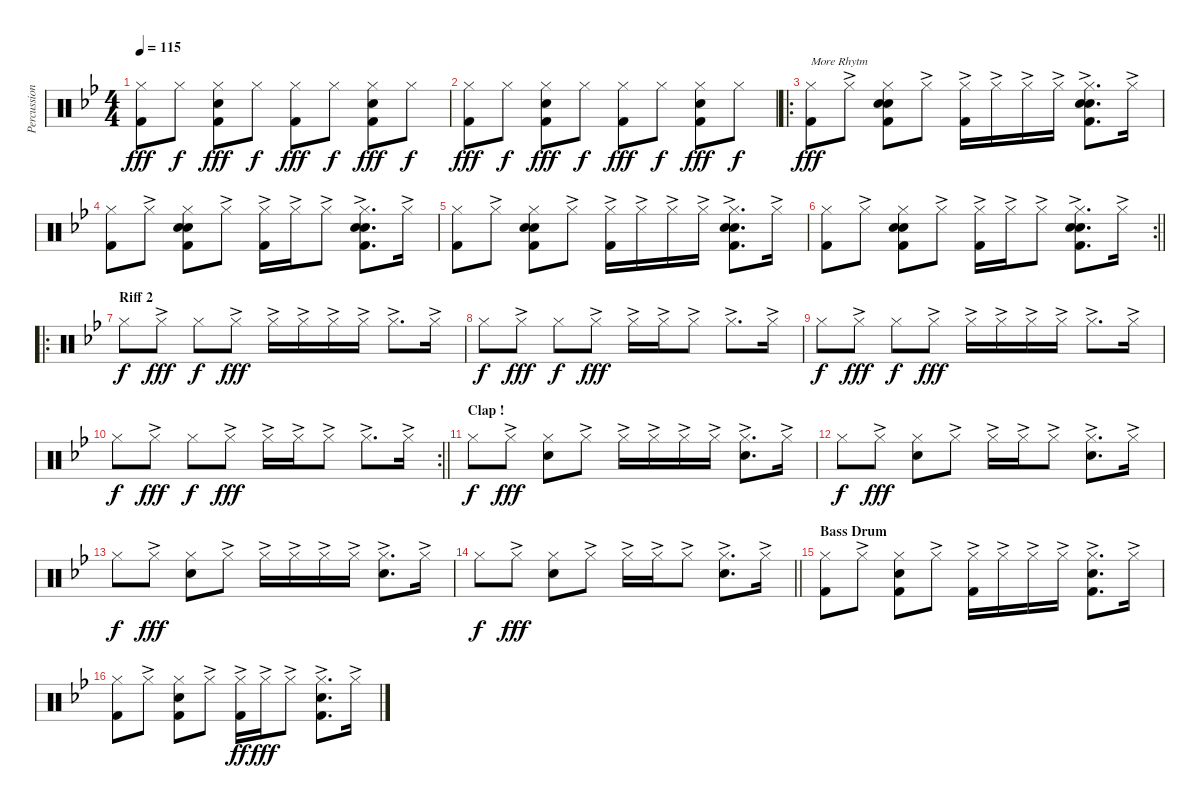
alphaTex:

\track ("Percussions" "Percussion") {instrument percussion}
\staff {score}
\articulation defaults
\ts (4 4)
\tempo 115
\clef neutral
\ks gminor
("Hi-Hat (closed)" "Kick (hit) 2").8{dy fff} "Hi-Hat (closed)".8{dy f} ("Hi-Hat (closed)" "Hand Clap (hit)" "Kick (hit) 2").8{dy fff} "Hi-Hat (closed)".8{dy f} ("Hi-Hat (closed)" "Kick (hit) 2").8{dy fff} "Hi-Hat (closed)".8{dy f} ("Hi-Hat (closed)" "Hand Clap (hit)" "Kick (hit) 2").8{dy fff} "Hi-Hat (closed)".8{dy f} |
("Hi-Hat (closed)" "Kick (hit) 2").8{dy fff} "Hi-Hat (closed)".8{dy f} ("Hi-Hat (closed)" "Hand Clap (hit)" "Kick (hit) 2").8{dy fff} "Hi-Hat (closed)".8{dy f} ("Hi-Hat (closed)" "Kick (hit) 2").8{dy fff} "Hi-Hat (closed)".8{dy f} ("Hi-Hat (closed)" "Hand Clap (hit)" "Kick (hit) 2").8{dy fff} "Hi-Hat (closed)".8{dy f} |
\ro
("Hi-Hat (closed)" "Kick (hit) 2").8{txt "More Rhytm" dy fff} "Hi-Hat (closed)"{ac}.8 ("Hi-Hat (closed)" "Hand Clap (hit)" "Electric Snare (hit)" "Kick (hit) 2").8 "Hi-Hat (closed)"{ac}.8 ("Hi-Hat (closed)"{ac} "Kick (hit) 2").16 "Hi-Hat (closed)"{ac}.16 "Hi-Hat (closed)"{ac}.16 "Hi-Hat (closed)"{ac}.16 ("Hi-Hat (closed)"{ac} "Hand Clap (hit)" "Electric Snare (hit)" "Kick (hit) 2").8{d} "Hi-Hat (closed)"{ac}.16 |
("Hi-Hat (closed)" "Kick (hit) 2").8 "Hi-Hat (closed)"{ac}.8 ("Hi-Hat (closed)" "Hand Clap (hit)" "Electric Snare (hit)" "Kick (hit) 2").8 "Hi-Hat (closed)"{ac}.8 ("Hi-Hat (closed)"{ac} "Kick (hit) 2").16 "Hi-Hat (closed)"{ac}.16 "Hi-Hat (closed)"{ac}.8 ("Hi-Hat (closed)"{ac} "Hand Clap (hit)" "Electric Snare (hit)" "Kick (hit) 2").8{d} "Hi-Hat (closed)"{ac}.16 |
("Hi-Hat (closed)" "Kick (hit) 2").8 "Hi-Hat (closed)"{ac}.8 ("Hi-Hat (closed)" "Hand Clap (hit)" "Electric Snare (hit)" "Kick (hit) 2").8 "Hi-Hat (closed)"{ac}.8 ("Hi-Hat (closed)"{ac} "Kick (hit) 2").16 "Hi-Hat (closed)"{ac}.16 "Hi-Hat (closed)"{ac}.16 "Hi-Hat (closed)"{ac}.16 ("Hi-Hat (closed)"{ac} "Hand Clap (hit)" "Electric Snare (hit)" "Kick (hit) 2").8{d} "Hi-Hat (closed)"{ac}.16 |
\rc 2
\barLineRight lightlight
("Hi-Hat (closed)" "Kick (hit) 2").8 "Hi-Hat (closed)"{ac}.8 ("Hi-Hat (closed)" "Hand Clap (hit)" "Electric Snare (hit)" "Kick (hit) 2").8 "Hi-Hat (closed)"{ac}.8 ("Hi-Hat (closed)"{ac} "Kick (hit) 2").16 "Hi-Hat (closed)"{ac}.16 "Hi-Hat (closed)"{ac}.8 ("Hi-Hat (closed)"{ac} "Hand Clap (hit)" "Electric Snare (hit)" "Kick (hit) 2").8{d} "Hi-Hat (closed)"{ac}.16 |
\ro
\section ("" "Riff 2")
"Hi-Hat (closed)".8{dy f} "Hi-Hat (closed)"{ac}.8{dy fff} "Hi-Hat (closed)".8{dy f} "Hi-Hat (closed)"{ac}.8{dy fff} "Hi-Hat (closed)"{ac}.16 "Hi-Hat (closed)"{ac}.16 "Hi-Hat (closed)"{ac}.16 "Hi-Hat (closed)"{ac}.16 "Hi-Hat (closed)"{ac}.8{d} "Hi-Hat (closed)"{ac}.16 |
"Hi-Hat (closed)".8{dy f} "Hi-Hat (closed)"{ac}.8{dy fff} "Hi-Hat (closed)".8{dy f} "Hi-Hat (closed)"{ac}.8{dy fff} "Hi-Hat (closed)"{ac}.16 "Hi-Hat (closed)"{ac}.16 "Hi-Hat (closed)"{ac}.8 "Hi-Hat (closed)"{ac}.8{d} "Hi-Hat (closed)"{ac}.16 |
"Hi-Hat (closed)".8{dy f} "Hi-Hat (closed)"{ac}.8{dy fff} "Hi-Hat (closed)".8{dy f} "Hi-Hat (closed)"{ac}.8{dy fff} "Hi-Hat (closed)"{ac}.16 "Hi-Hat (closed)"{ac}.16 "Hi-Hat (closed)"{ac}.16 "Hi-Hat (closed)"{ac}.16 "Hi-Hat (closed)"{ac}.8{d} "Hi-Hat (closed)"{ac}.16 |
\rc 2
\barLineRight lightlight "Hi-Hat (closed)".8{dy f} "Hi-Hat (closed)"{ac}.8{dy fff} "Hi-Hat (closed)".8{dy f} "Hi-Hat (closed)"{ac}.8{dy fff} "Hi-Hat (closed)"{ac}.16 "Hi-Hat (closed)"{ac}.16 "Hi-Hat (closed)"{ac}.8 "Hi-Hat (closed)"{ac}.8{d} "Hi-Hat (closed)"{ac}.16
|
\section ("" "Clap !")
"Hi-Hat (closed)".8{dy f} "Hi-Hat (closed)"{ac}.8{dy fff} ("Hi-Hat (closed)" "Hand Clap (hit)").8 "Hi-Hat (closed)"{ac}.8 "Hi-Hat (closed)"{ac}.16 "Hi-Hat (closed)"{ac}.16 "Hi-Hat (closed)"{ac}.16 "Hi-Hat (closed)"{ac}.16 ("Hi-Hat (closed)"{ac} "Hand Clap (hit)").8{d} "Hi-Hat (closed)"{ac}.16 |
"Hi-Hat (closed)".8{dy f} "Hi-Hat (closed)"{ac}.8{dy fff} ("Hi-Hat (closed)" "Hand Clap (hit)").8 "Hi-Hat (closed)"{ac}.8 "Hi-Hat (closed)"{ac}.16 "Hi-Hat (closed)"{ac}.16 "Hi-Hat (closed)"{ac}.8 ("Hi-Hat (closed)"{ac} "Hand Clap (hit)").8{d} "Hi-Hat (closed)"{ac}.16 |
"Hi-Hat (closed)".8{dy f} "Hi-Hat (closed)"{ac}.8{dy fff} ("Hi-Hat (closed)" "Hand Clap (hit)").8 "Hi-Hat (closed)"{ac}.8 "Hi-Hat (closed)"{ac}.16 "Hi-Hat (closed)"{ac}.16 "Hi-Hat (closed)"{ac}.16 "Hi-Hat (closed)"{ac}.16 ("Hi-Hat (closed)"{ac} "Hand Clap (hit)").8{d} "Hi-Hat (closed)"{ac}.16 |
\barLineRight lightlight "Hi-Hat (closed)".8{dy f} "Hi-Hat (closed)"{ac}.8{dy fff}
("Hi-Hat (closed)" "Hand Clap (hit)").8 "Hi-Hat (closed)"{ac}.8 "Hi-Hat (closed)"{ac}.16 "Hi-Hat (closed)"{ac}.16 "Hi-Hat (closed)"{ac}.8 ("Hi-Hat (closed)"{ac} "Hand Clap (hit)").8{d} "Hi-Hat (closed)"{ac}.16 |
\section ("" "Bass Drum")
("Hi-Hat (closed)" "Kick (hit) 2").8 "Hi-Hat (closed)"{ac}.8 ("Hi-Hat (closed)" "Hand Clap (hit)" "Kick (hit) 2").8 "Hi-Hat (closed)"{ac}.8 ("Hi-Hat (closed)"{ac} "Kick (hit) 2").16 "Hi-Hat (closed)"{ac}.16 "Hi-Hat (closed)"{ac}.16 "Hi-Hat (closed)"{ac}.16 ("Hi-Hat (closed)"{ac} "Hand Clap (hit)" "Kick (hit) 2").8{d} "Hi-Hat (closed)"{ac}.16 |
("Hi-Hat (closed)" "Kick (hit) 2").8 "Hi-Hat (closed)"{ac}.8 ("Hi-Hat (closed)" "Hand Clap (hit)" "Kick (hit) 2").8 "Hi-Hat (closed)"{ac}.8 ("Hi-Hat (closed)"{ac} "Kick (hit) 2").16{dy ff} "Hi-Hat (closed)"{ac}.16{dy fff} "Hi-Hat (closed)"{ac}.8 ("Hi-Hat (closed)"{ac} "Hand Clap (hit)" "Kick (hit) 2").8{d} "Hi-Hat (closed)"{ac}.16
